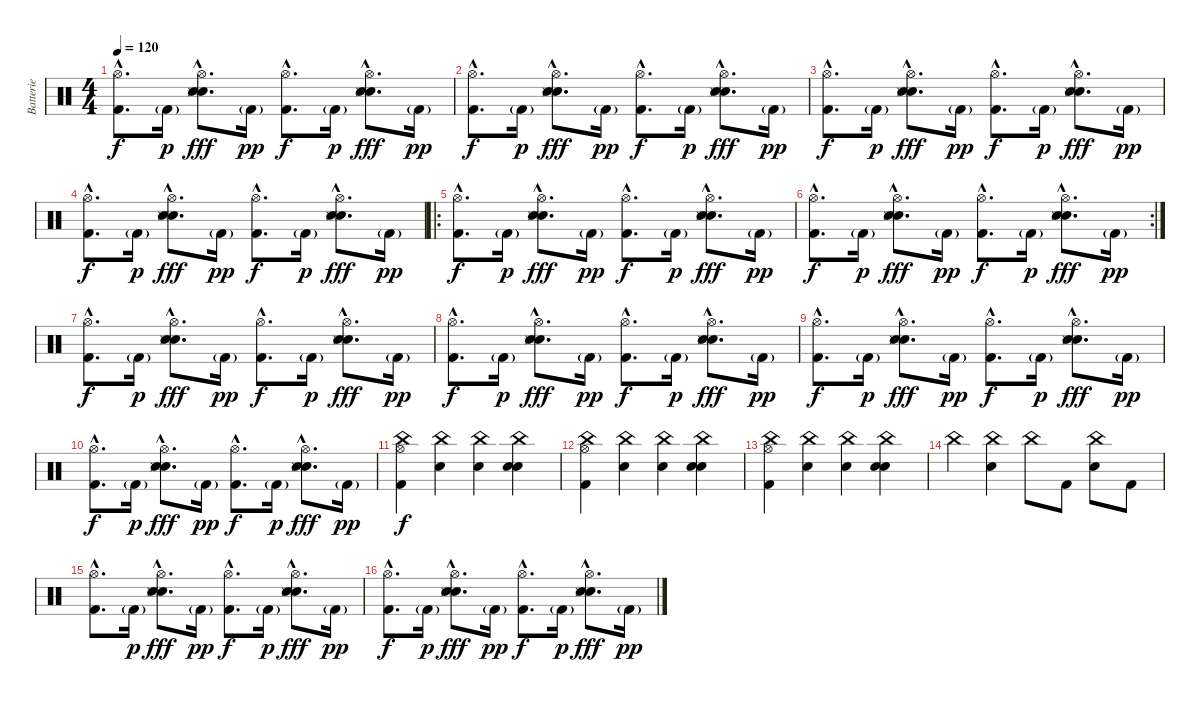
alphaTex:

\track ("Batterie" "Batterie") {instrument percussion}
\staff {score}
\articulation defaults
\ts (4 4)
\tempo 120
\clef neutral
\ks c
("Kick (hit) 2"{hac} "Hi-Hat (open)"{hac}).8{d dy f} "Kick (hit) 2"{g}.16{dy p} ("Hand Clap (hit)"{hac} "Electric Snare (hit)"{hac} "Hi-Hat (open)"{hac} "Snare (side stick) 3"{hac}).8{d dy fff} "Kick (hit) 2"{g}.16{dy pp} ("Kick (hit) 2"{hac} "Hi-Hat (open)"{hac}).8{d dy f} "Kick (hit) 2"{g}.16{dy p} ("Hand Clap (hit)"{hac} "Electric Snare (hit)"{hac} "Hi-Hat (open)"{hac} "Snare (side stick) 3"{hac}).8{d dy fff} "Kick (hit) 2"{g}.16{dy pp} |
("Kick (hit) 2"{hac} "Hi-Hat (open)"{hac}).8{d dy f} "Kick (hit) 2"{g}.16{dy p} ("Hand Clap (hit)"{hac} "Electric Snare (hit)"{hac} "Hi-Hat (open)"{hac} "Snare (side stick) 3"{hac}).8{d dy fff} "Kick (hit) 2"{g}.16{dy pp} ("Kick (hit) 2"{hac} "Hi-Hat (open)"{hac}).8{d dy f} "Kick (hit) 2"{g}.16{dy p} ("Hand Clap (hit)"{hac} "Electric Snare (hit)"{hac} "Hi-Hat (open)"{hac} "Snare (side stick) 3"{hac}).8{d dy fff} "Kick (hit) 2"{g}.16{dy pp} |
("Kick (hit) 2"{hac} "Hi-Hat (open)"{hac}).8{d dy f} "Kick (hit) 2"{g}.16{dy p} ("Hand Clap (hit)"{hac} "Electric Snare (hit)"{hac} "Hi-Hat (open)"{hac} "Snare (side stick) 3"{hac}).8{d dy fff} "Kick (hit) 2"{g}.16{dy pp} ("Kick (hit) 2"{hac} "Hi-Hat (open)"{hac}).8{d dy f} "Kick (hit) 2"{g}.16{dy p} ("Hand Clap (hit)"{hac} "Electric Snare (hit)"{hac} "Hi-Hat (open)"{hac} "Snare (side stick) 3"{hac}).8{d dy fff} "Kick (hit) 2"{g}.16{dy pp} |
("Kick (hit) 2"{hac} "Hi-Hat (open)"{hac}).8{d dy f} "Kick (hit) 2"{g}.16{dy p} ("Hand Clap (hit)"{hac} "Electric Snare (hit)"{hac} "Hi-Hat (open)"{hac} "Snare (side stick) 3"{hac}).8{d dy fff} "Kick (hit) 2"{g}.16{dy pp} ("Kick (hit) 2"{hac} "Hi-Hat (open)"{hac}).8{d dy f} "Kick (hit) 2"{g}.16{dy p} ("Hand Clap (hit)"{hac} "Electric Snare (hit)"{hac} "Hi-Hat (open)"{hac} "Snare (side stick) 3"{hac}).8{d dy fff} "Kick (hit) 2"{g}.16{dy pp} |
\ro
("Kick (hit) 2"{hac} "Hi-Hat (open)"{hac}).8{d dy f} "Kick (hit) 2"{g}.16{dy p} ("Hand Clap (hit)"{hac} "Electric Snare (hit)"{hac} "Hi-Hat (open)"{hac} "Snare (side stick) 3"{hac}).8{d dy fff} "Kick (hit) 2"{g}.16{dy pp} ("Kick (hit) 2"{hac} "Hi-Hat (open)"{hac}).8{d dy f} "Kick (hit) 2"{g}.16{dy p} ("Hand Clap (hit)"{hac} "Electric Snare (hit)"{hac} "Hi-Hat (open)"{hac} "Snare (side stick) 3"{hac}).8{d dy fff} "Kick (hit) 2"{g}.16{dy pp} |
\rc 2
("Kick (hit) 2"{hac} "Hi-Hat (open)"{hac}).8{d dy f} "Kick (hit) 2"{g}.16{dy p} ("Hand Clap (hit)"{hac} "Electric Snare (hit)"{hac} "Hi-Hat (open)"{hac} "Snare (side stick) 3"{hac}).8{d dy fff} "Kick (hit) 2"{g}.16{dy pp} ("Kick (hit) 2"{hac} "Hi-Hat (open)"{hac}).8{d dy f} "Kick (hit) 2"{g}.16{dy p} ("Hand Clap (hit)"{hac} "Electric Snare (hit)"{hac} "Hi-Hat (open)"{hac} "Snare (side stick) 3"{hac}).8{d dy fff} "Kick (hit) 2"{g}.16{dy pp} |
("Kick (hit) 2"{hac} "Hi-Hat (open)"{hac}).8{d dy f} "Kick (hit) 2"{g}.16{dy p} ("Hand Clap (hit)"{hac} "Electric Snare (hit)"{hac} "Hi-Hat (open)"{hac} "Snare (side stick) 3"{hac}).8{d dy fff} "Kick (hit) 2"{g}.16{dy pp} ("Kick (hit) 2"{hac} "Hi-Hat (open)"{hac}).8{d dy f} "Kick (hit) 2"{g}.16{dy p} ("Hand Clap (hit)"{hac} "Electric Snare (hit)"{hac} "Hi-Hat (open)"{hac} "Snare (side stick) 3"{hac}).8{d dy fff} "Kick (hit) 2"{g}.16{dy pp} |
("Kick (hit) 2"{hac} "Hi-Hat (open)"{hac}).8{d dy f} "Kick (hit) 2"{g}.16{dy p} ("Hand Clap (hit)"{hac} "Electric Snare (hit)"{hac} "Hi-Hat (open)"{hac} "Snare (side stick) 3"{hac}).8{d dy fff} "Kick (hit) 2"{g}.16{dy pp} ("Kick (hit) 2"{hac} "Hi-Hat (open)"{hac}).8{d dy f} "Kick (hit) 2"{g}.16{dy p} ("Hand Clap (hit)"{hac} "Electric Snare (hit)"{hac} "Hi-Hat (open)"{hac} "Snare (side stick) 3"{hac}).8{d dy fff} "Kick (hit) 2"{g}.16{dy pp} |
("Kick (hit) 2"{hac} "Hi-Hat (open)"{hac}).8{d dy f} "Kick (hit) 2"{g}.16{dy p} ("Hand Clap (hit)"{hac} "Electric Snare (hit)"{hac} "Hi-Hat (open)"{hac} "Snare (side stick) 3"{hac}).8{d dy fff} "Kick (hit) 2"{g}.16{dy pp} ("Kick (hit) 2"{hac} "Hi-Hat (open)"{hac}).8{d dy f} "Kick (hit) 2"{g}.16{dy p} ("Hand Clap (hit)"{hac} "Electric Snare (hit)"{hac} "Hi-Hat (open)"{hac} "Snare (side stick) 3"{hac}).8{d dy fff} "Kick (hit) 2"{g}.16{dy pp} |
("Kick (hit) 2"{hac} "Hi-Hat (open)"{hac}).8{d dy f} "Kick (hit) 2"{g}.16{dy p} ("Hand Clap (hit)"{hac} "Electric Snare (hit)"{hac} "Hi-Hat (open)"{hac} "Snare (side stick) 3"{hac}).8{d dy fff} "Kick (hit) 2"{g}.16{dy pp} ("Kick (hit) 2"{hac} "Hi-Hat (open)"{hac}).8{d dy f} "Kick (hit) 2"{g}.16{dy p} ("Hand Clap (hit)"{hac} "Electric Snare (hit)"{hac} "Hi-Hat (open)"{hac} "Snare (side stick) 3"{hac}).8{d dy fff} "Kick (hit) 2"{g}.16{dy pp} |
("China (hit)" "Kick (hit) 2" "Hi-Hat (open)").4{dy f} ("China (hit)" "Electric Snare (hit)").4 ("China (hit)" "Electric Snare (hit)").4 ("China (hit)" "Electric Snare (hit)" "Hand Clap (hit)").4 |
("China (hit)" "Kick (hit) 2" "Hi-Hat (open)").4 ("China (hit)" "Electric Snare (hit)").4 ("China (hit)" "Electric Snare (hit)").4 ("China (hit)" "Electric Snare (hit)" "Hand Clap (hit)").4 |
("China (hit)" "Kick (hit) 2" "Hi-Hat (open)").4 ("China (hit)" "Electric Snare (hit)").4 ("China (hit)" "Electric Snare (hit)").4 ("China (hit)" "Electric Snare (hit)" "Hand Clap (hit)").4 |
"China (hit)".4 ("China (hit)" "Electric Snare (hit)").4 "China (hit)".8 "Kick (hit) 2".8 ("China (hit)" "Electric Snare (hit)").8 "Kick (hit) 2".8 |
("Kick (hit) 2"{hac} "Hi-Hat (open)"{hac}).8{d} "Kick (hit) 2"{g}.16{dy p} ("Hand Clap (hit)"{hac} "Electric Snare (hit)"{hac} "Hi-Hat (open)"{hac} "Snare (side stick) 3"{hac}).8{d dy fff} "Kick (hit) 2"{g}.16{dy pp} ("Kick (hit) 2"{hac} "Hi-Hat (open)"{hac}).8{d dy f} "Kick (hit) 2"{g}.16{dy p} ("Hand Clap (hit)"{hac} "Electric Snare (hit)"{hac} "Hi-Hat (open)"{hac} "Snare (side stick) 3"{hac}).8{d dy fff} "Kick (hit) 2"{g}.16{dy pp} |
("Kick (hit) 2"{hac} "Hi-Hat (open)"{hac}).8{d dy f} "Kick (hit) 2"{g}.16{dy p} ("Hand Clap (hit)"{hac} "Electric Snare (hit)"{hac} "Hi-Hat (open)"{hac} "Snare (side stick) 3"{hac}).8{d dy fff} "Kick (hit) 2"{g}.16{dy pp} ("Kick (hit) 2"{hac} "Hi-Hat (open)"{hac}).8{d dy f} "Kick (hit) 2"{g}.16{dy p} ("Hand Clap (hit)"{hac} "Electric Snare (hit)"{hac} "Hi-Hat (open)"{hac} "Snare (side stick) 3"{hac}).8{d dy fff} "Kick (hit) 2"{g}.16{dy pp}
